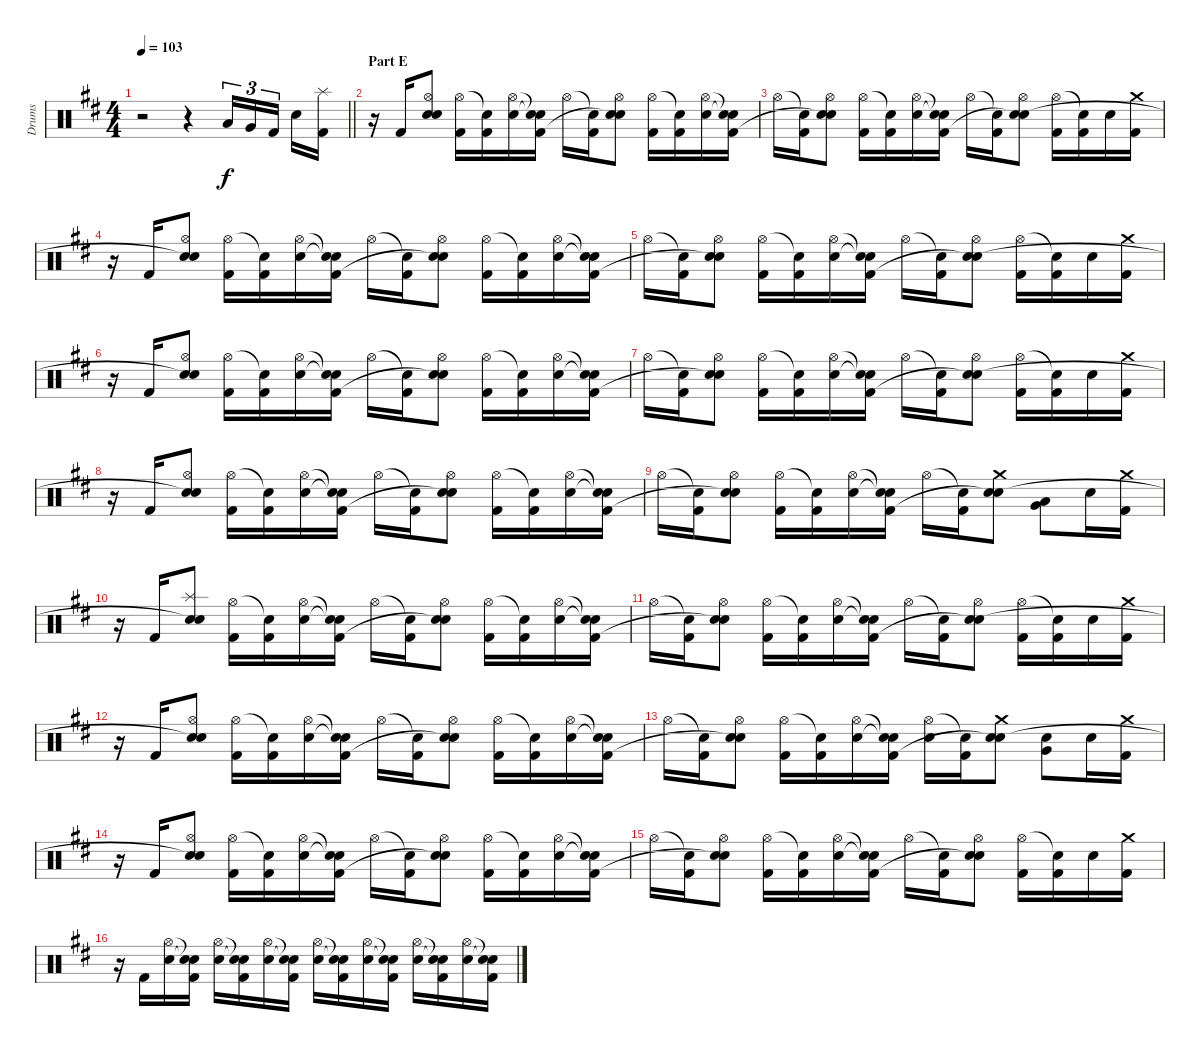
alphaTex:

\track ("Drums" "Drums") {instrument percussion}
\staff {score}
\articulation defaults
\ts (4 4)
\tempo 103
\clef neutral
\barLineRight lightlight
\ks d
r.2{dy f} r.4 "Low Tom (hit)".16{tu (3 2)} "Very Low Tom (hit)".16{tu (3 2)} "Kick (hit) 2".16{tu (3 2)} "Electric Snare (hit)".16 ("Splash (hit)" "Kick (hit) 2").16 |
\section ("" "Part E")
r.16 "Kick (hit) 2".16 ("Hi-Hat (open)" "Electric Snare (hit)" "Snare (hit)"{t}).8 ("Hi-Hat (open)" "Kick (hit) 2").16 ("Snare (hit)"{t} "Kick (hit) 2").16 ("Hi-Hat (open)" "Electric Snare (hit)").16 ("Snare (hit)"{t} "Snare (hit)"{t} "Kick (hit) 2").16 "Hi-Hat (open)".16 ("Snare (hit)"{t} "Kick (hit) 2").16 ("Hi-Hat (open)" "Electric Snare (hit)" "Snare (hit)"{t}).8 ("Hi-Hat (open)" "Kick (hit) 2").16 ("Snare (hit)"{t} "Kick (hit) 2").16 ("Hi-Hat (open)" "Electric Snare (hit)").16 ("Snare (hit)"{t} "Snare (hit)"{t} "Kick (hit) 2").16 |
"Hi-Hat (open)".16 ("Snare (hit)"{t} "Kick (hit) 2").16 ("Hi-Hat (open)" "Electric Snare (hit)" "Snare (hit)"{t}).8 ("Hi-Hat (open)" "Kick (hit) 2").16 ("Snare (hit)"{t} "Kick (hit) 2").16 ("Hi-Hat (open)" "Electric Snare (hit)").16 ("Snare (hit)"{t} "Snare (hit)"{t} "Kick (hit) 2").16 "Hi-Hat (open)".16 ("Snare (hit)"{t} "Kick (hit) 2").16 ("Hi-Hat (open)" "Electric Snare (hit)" "Snare (hit)"{t}).8 ("Hi-Hat (open)" "Kick (hit) 2").16 ("Snare (hit)"{t} "Kick (hit) 2").16 "Electric Snare (hit)".16 ("Crash medium (hit)" "Kick (hit) 2").16 |
r.16 "Kick (hit) 2".16 ("Hi-Hat (open)" "Electric Snare (hit)" "Snare (hit)"{t}).8 ("Hi-Hat (open)" "Kick (hit) 2").16 ("Snare (hit)"{t} "Kick (hit) 2").16 ("Hi-Hat (open)" "Electric Snare (hit)").16 ("Snare (hit)"{t} "Snare (hit)"{t} "Kick (hit) 2").16 "Hi-Hat (open)".16 ("Snare (hit)"{t} "Kick (hit) 2").16 ("Hi-Hat (open)" "Electric Snare (hit)" "Snare (hit)"{t}).8 ("Hi-Hat (open)" "Kick (hit) 2").16 ("Snare (hit)"{t} "Kick (hit) 2").16 ("Hi-Hat (open)" "Electric Snare (hit)").16 ("Snare (hit)"{t} "Snare (hit)"{t} "Kick (hit) 2").16 |
"Hi-Hat (open)".16 ("Snare (hit)"{t} "Kick (hit) 2").16 ("Hi-Hat (open)" "Electric Snare (hit)" "Snare (hit)"{t}).8 ("Hi-Hat (open)" "Kick (hit) 2").16 ("Snare (hit)"{t} "Kick (hit) 2").16 ("Hi-Hat (open)" "Electric Snare (hit)").16 ("Snare (hit)"{t} "Snare (hit)"{t} "Kick (hit) 2").16 "Hi-Hat (open)".16 ("Snare (hit)"{t} "Kick (hit) 2").16 ("Hi-Hat (open)" "Electric Snare (hit)" "Snare (hit)"{t}).8 ("Hi-Hat (open)" "Kick (hit) 2").16 ("Snare (hit)"{t} "Kick (hit) 2").16 "Electric Snare (hit)".16 ("Crash medium (hit)" "Kick (hit) 2").16 |
r.16 "Kick (hit) 2".16 ("Hi-Hat (open)" "Electric Snare (hit)" "Snare (hit)"{t}).8 ("Hi-Hat (open)" "Kick (hit) 2").16 ("Snare (hit)"{t} "Kick (hit) 2").16 ("Hi-Hat (open)" "Electric Snare (hit)").16 ("Snare (hit)"{t} "Snare (hit)"{t} "Kick (hit) 2").16 "Hi-Hat (open)".16 ("Snare (hit)"{t} "Kick (hit) 2").16 ("Hi-Hat (open)" "Electric Snare (hit)" "Snare (hit)"{t}).8 ("Hi-Hat (open)" "Kick (hit) 2").16 ("Snare (hit)"{t} "Kick (hit) 2").16 ("Hi-Hat (open)" "Electric Snare (hit)").16 ("Snare (hit)"{t} "Snare (hit)"{t} "Kick (hit) 2").16 |
"Hi-Hat (open)".16 ("Snare (hit)"{t} "Kick (hit) 2").16 ("Hi-Hat (open)" "Electric Snare (hit)" "Snare (hit)"{t}).8 ("Hi-Hat (open)" "Kick (hit) 2").16 ("Snare (hit)"{t} "Kick (hit) 2").16 ("Hi-Hat (open)" "Electric Snare (hit)").16 ("Snare (hit)"{t} "Snare (hit)"{t} "Kick (hit) 2").16 "Hi-Hat (open)".16 ("Snare (hit)"{t} "Kick (hit) 2").16 ("Hi-Hat (open)" "Electric Snare (hit)" "Snare (hit)"{t}).8 ("Hi-Hat (open)" "Kick (hit) 2").16 ("Snare (hit)"{t} "Kick (hit) 2").16 "Electric Snare (hit)".16 ("Crash medium (hit)" "Kick (hit) 2").16 |
r.16 "Kick (hit) 2".16 ("Hi-Hat (open)" "Electric Snare (hit)" "Snare (hit)"{t}).8 ("Hi-Hat (open)" "Kick (hit) 2").16 ("Snare (hit)"{t} "Kick (hit) 2").16 ("Hi-Hat (open)" "Electric Snare (hit)").16 ("Snare (hit)"{t} "Snare (hit)"{t} "Kick (hit) 2").16 "Hi-Hat (open)".16 ("Snare (hit)"{t} "Kick (hit) 2").16 ("Hi-Hat (open)" "Electric Snare (hit)" "Snare (hit)"{t}).8 ("Hi-Hat (open)" "Kick (hit) 2").16 ("Snare (hit)"{t} "Kick (hit) 2").16 ("Hi-Hat (open)" "Electric Snare (hit)").16 ("Snare (hit)"{t} "Snare (hit)"{t} "Kick (hit) 2").16 |
"Hi-Hat (open)".16 ("Snare (hit)"{t} "Kick (hit) 2").16 ("Hi-Hat (open)" "Electric Snare (hit)" "Snare (hit)"{t}).8 ("Hi-Hat (open)" "Kick (hit) 2").16 ("Snare (hit)"{t} "Kick (hit) 2").16 ("Hi-Hat (open)" "Electric Snare (hit)").16 ("Snare (hit)"{t} "Snare (hit)"{t} "Kick (hit) 2").16 "Hi-Hat (open)".16 ("Snare (hit)"{t} "Kick (hit) 2").16 ("Crash medium (hit)" "Electric Snare (hit)" "Snare (hit)"{t}).8 ("Very Low Tom (hit)" "Low Floor Tom (hit)").8 "Electric Snare (hit)".16 ("Crash medium (hit)" "Kick (hit) 2").16 |
r.16 "Kick (hit) 2".16 ("Splash (hit)" "Electric Snare (hit)" "Snare (hit)"{t}).8 ("Hi-Hat (open)" "Kick (hit) 2").16 ("Snare (hit)"{t} "Kick (hit) 2").16 ("Hi-Hat (open)" "Electric Snare (hit)").16 ("Snare (hit)"{t} "Snare (hit)"{t} "Kick (hit) 2").16 "Hi-Hat (open)".16 ("Snare (hit)"{t} "Kick (hit) 2").16 ("Hi-Hat (open)" "Electric Snare (hit)" "Snare (hit)"{t}).8 ("Hi-Hat (open)" "Kick (hit) 2").16 ("Snare (hit)"{t} "Kick (hit) 2").16 ("Hi-Hat (open)" "Electric Snare (hit)").16 ("Snare (hit)"{t} "Snare (hit)"{t} "Kick (hit) 2").16 |
"Hi-Hat (open)".16 ("Snare (hit)"{t} "Kick (hit) 2").16 ("Hi-Hat (open)" "Electric Snare (hit)" "Snare (hit)"{t}).8 ("Hi-Hat (open)" "Kick (hit) 2").16 ("Snare (hit)"{t} "Kick (hit) 2").16 ("Hi-Hat (open)" "Electric Snare (hit)").16 ("Snare (hit)"{t} "Snare (hit)"{t} "Kick (hit) 2").16 "Hi-Hat (open)".16 ("Snare (hit)"{t} "Kick (hit) 2").16 ("Hi-Hat (open)" "Electric Snare (hit)" "Snare (hit)"{t}).8 ("Hi-Hat (open)" "Kick (hit) 2").16 ("Snare (hit)"{t} "Kick (hit) 2").16 "Electric Snare (hit)".16 ("Crash medium (hit)" "Kick (hit) 2").16 |
r.16 "Kick (hit) 2".16 ("Hi-Hat (open)" "Electric Snare (hit)" "Snare (hit)"{t}).8 ("Hi-Hat (open)" "Kick (hit) 2").16 ("Snare (hit)"{t} "Kick (hit) 2").16 ("Hi-Hat (open)" "Electric Snare (hit)").16 ("Snare (hit)"{t} "Snare (hit)"{t} "Kick (hit) 2").16 "Hi-Hat (open)".16 ("Snare (hit)"{t} "Kick (hit) 2").16 ("Hi-Hat (open)" "Electric Snare (hit)" "Snare (hit)"{t}).8 ("Hi-Hat (open)" "Kick (hit) 2").16 ("Snare (hit)"{t} "Kick (hit) 2").16 ("Hi-Hat (open)" "Electric Snare (hit)").16 ("Snare (hit)"{t} "Snare (hit)"{t} "Kick (hit) 2").16 |
"Hi-Hat (open)".16 ("Snare (hit)"{t} "Kick (hit) 2").16 ("Hi-Hat (open)" "Electric Snare (hit)" "Snare (hit)"{t}).8 ("Hi-Hat (open)" "Kick (hit) 2").16 ("Snare (hit)"{t} "Kick (hit) 2").16 ("Hi-Hat (open)" "Electric Snare (hit)").16 ("Snare (hit)"{t} "Snare (hit)"{t} "Kick (hit) 2").16 ("Hi-Hat (open)" "Electric Snare (hit)").16 ("Snare (hit)"{t} "Kick (hit) 2").16 ("Crash medium (hit)" "Electric Snare (hit)" "Snare (hit)"{t}).8 ("Electric Snare (hit)" "Very Low Tom (hit)").8 "Electric Snare (hit)".16 ("Crash medium (hit)" "Kick (hit) 2").16 |
r.16 "Kick (hit) 2".16 ("Hi-Hat (open)" "Electric Snare (hit)" "Snare (hit)"{t}).8 ("Hi-Hat (open)" "Kick (hit) 2").16 ("Snare (hit)"{t} "Kick (hit) 2").16 ("Hi-Hat (open)" "Electric Snare (hit)").16 ("Snare (hit)"{t} "Snare (hit)"{t} "Kick (hit) 2").16 "Hi-Hat (open)".16 ("Snare (hit)"{t} "Kick (hit) 2").16 ("Hi-Hat (open)" "Electric Snare (hit)" "Snare (hit)"{t}).8 ("Hi-Hat (open)" "Kick (hit) 2").16 ("Snare (hit)"{t} "Kick (hit) 2").16 ("Hi-Hat (open)" "Electric Snare (hit)").16 ("Snare (hit)"{t} "Snare (hit)"{t} "Kick (hit) 2").16 |
"Hi-Hat (open)".16 ("Snare (hit)"{t} "Kick (hit) 2").16 ("Hi-Hat (open)" "Electric Snare (hit)" "Snare (hit)"{t}).8 ("Hi-Hat (open)" "Kick (hit) 2").16 ("Snare (hit)"{t} "Kick (hit) 2").16 ("Hi-Hat (open)" "Electric Snare (hit)").16 ("Snare (hit)"{t} "Snare (hit)"{t} "Kick (hit) 2").16 "Hi-Hat (open)".16 ("Snare (hit)"{t} "Kick (hit) 2").16 ("Hi-Hat (open)" "Electric Snare (hit)" "Snare (hit)"{t}).8 ("Hi-Hat (open)" "Kick (hit) 2").16 ("Snare (hit)"{t} "Kick (hit) 2").16 "Electric Snare (hit)".16 ("Crash medium (hit)" "Kick (hit) 2").16 |
r.16 "Kick (hit) 2".16 ("Hi-Hat (open)" "Electric Snare (hit)").16 ("Snare (hit)"{t} "Snare (hit)"{t} "Kick (hit) 2").16 ("Hi-Hat (open)" "Electric Snare (hit)").16 ("Snare (hit)"{t} "Snare (hit)"{t} "Kick (hit) 2").16 ("Hi-Hat (open)" "Electric Snare (hit)").16 ("Snare (hit)"{t} "Snare (hit)"{t} "Kick (hit) 2").16 ("Hi-Hat (open)" "Electric Snare (hit)").16 ("Snare (hit)"{t} "Snare (hit)"{t} "Kick (hit) 2").16 ("Hi-Hat (open)" "Electric Snare (hit)").16 ("Snare (hit)"{t} "Snare (hit)"{t} "Kick (hit) 2").16 ("Hi-Hat (open)" "Electric Snare (hit)").16 ("Snare (hit)"{t} "Snare (hit)"{t} "Kick (hit) 2").16 ("Hi-Hat (open)" "Electric Snare (hit)").16 ("Snare (hit)"{t} "Snare (hit)"{t} "Kick (hit) 2").16
